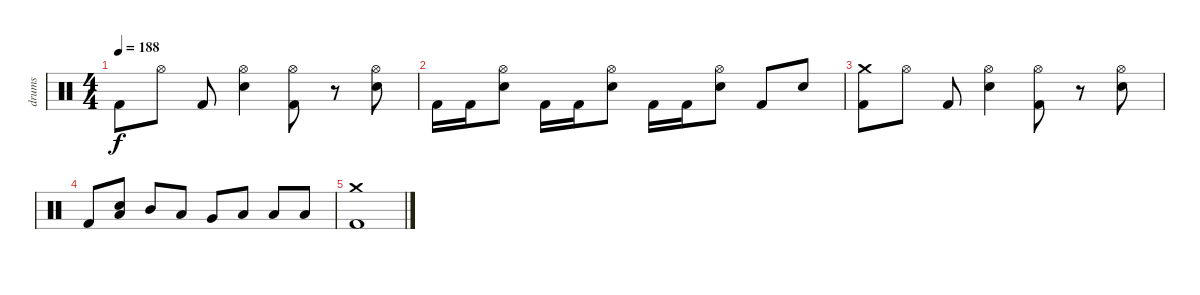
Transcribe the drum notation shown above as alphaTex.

\track ("drums" "drums") {instrument percussion}
\staff {score}
\articulation defaults
\ts (4 4)
\tempo 188
\clef neutral
\ks c "Kick (hit) 2".8{dy f} "Hi-Hat (open)".8 "Kick (hit) 2".8
("Hi-Hat (open)" "Electric Snare (hit)").4 ("Hi-Hat (open)" "Kick (hit) 2").8 r.8 ("Hi-Hat (open)" "Electric Snare (hit)").8 |
"Kick (hit) 2".16 "Kick (hit) 2".16 ("Hi-Hat (open)" "Electric Snare (hit)").8 "Kick (hit) 2".16 "Kick (hit) 2".16 ("Hi-Hat (open)" "Electric Snare (hit)").8 "Kick (hit) 2".16 "Kick (hit) 2".16 ("Hi-Hat (open)" "Electric Snare (hit)").8 "Kick (hit) 2".8 "Electric Snare (hit)".8 |
("Crash medium (hit)" "Kick (hit) 2").8 "Hi-Hat (open)".8 "Kick (hit) 2".8 ("Hi-Hat (open)" "Electric Snare (hit)").4 ("Hi-Hat (open)" "Kick (hit) 2").8 r.8 ("Hi-Hat (open)" "Electric Snare (hit)").8 |
"Kick (hit) 2".8 ("Low Floor Tom (hit)" "Electric Snare (hit)").8 "Mid Tom (hit)".8 "Low Tom (hit)".8 "Very Low Tom (hit)".8 "Low Floor Tom (hit)".8 "Low Floor Tom (hit)".8 "Low Floor Tom (hit)".8 |
("Crash medium (hit)" "Kick (hit) 2").1
